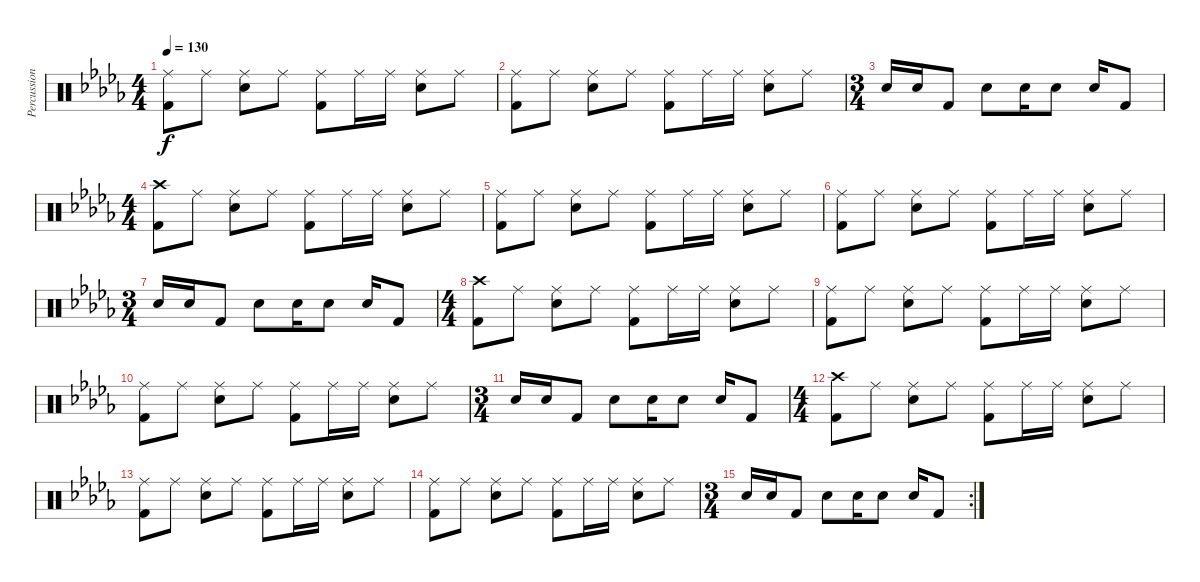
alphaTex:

\track ("Percussions" "Percussion") {instrument percussion}
\staff {score}
\articulation defaults
\ts (4 4)
\tempo 130
\clef neutral
\ks db
("Ride (middle)" "Kick (hit) 2").8{dy f} "Ride (middle)".8 ("Ride (middle)" "Snare (hit) 2").8 "Ride (middle)".8 ("Ride (middle)" "Kick (hit) 2").8 "Ride (middle)".16 "Ride (middle)".16 ("Ride (middle)" "Snare (hit) 2").8 "Ride (middle)".8 |
("Ride (middle)" "Kick (hit) 2").8 "Ride (middle)".8 ("Ride (middle)" "Snare (hit) 2").8 "Ride (middle)".8 ("Ride (middle)" "Kick (hit) 2").8 "Ride (middle)".16 "Ride (middle)".16 ("Ride (middle)" "Snare (hit) 2").8 "Ride (middle)".8 |
\ts (3 4)
"Snare (hit) 2".16 "Snare (hit) 2".16 "Kick (hit) 2".8 "Snare (hit) 2".8 "Snare (hit) 2".16 "Snare (hit) 2".8 "Snare (hit) 2".16 "Kick (hit) 2".8 |
\ts (4 4)
("Crash high (hit)" "Kick (hit) 2").8 "Ride (middle)".8 ("Ride (middle)" "Snare (hit) 2").8 "Ride (middle)".8 ("Ride (middle)" "Kick (hit) 2").8 "Ride (middle)".16 "Ride (middle)".16 ("Ride (middle)" "Snare (hit) 2").8 "Ride (middle)".8 |
("Ride (middle)" "Kick (hit) 2").8 "Ride (middle)".8 ("Ride (middle)" "Snare (hit) 2").8 "Ride (middle)".8 ("Ride (middle)" "Kick (hit) 2").8 "Ride (middle)".16 "Ride (middle)".16 ("Ride (middle)" "Snare (hit) 2").8 "Ride (middle)".8 |
("Ride (middle)" "Kick (hit) 2").8 "Ride (middle)".8 ("Ride (middle)" "Snare (hit) 2").8 "Ride (middle)".8 ("Ride (middle)" "Kick (hit) 2").8 "Ride (middle)".16 "Ride (middle)".16 ("Ride (middle)" "Snare (hit) 2").8 "Ride (middle)".8 |
\ts (3 4)
"Snare (hit) 2".16 "Snare (hit) 2".16 "Kick (hit) 2".8 "Snare (hit) 2".8 "Snare (hit) 2".16 "Snare (hit) 2".8 "Snare (hit) 2".16 "Kick (hit) 2".8 |
\ts (4 4)
("Crash high (hit)" "Kick (hit) 2").8 "Ride (middle)".8 ("Ride (middle)" "Snare (hit) 2").8 "Ride (middle)".8 ("Ride (middle)" "Kick (hit) 2").8 "Ride (middle)".16 "Ride (middle)".16 ("Ride (middle)" "Snare (hit) 2").8 "Ride (middle)".8 |
("Ride (middle)" "Kick (hit) 2").8 "Ride (middle)".8 ("Ride (middle)" "Snare (hit) 2").8 "Ride (middle)".8 ("Ride (middle)" "Kick (hit) 2").8 "Ride (middle)".16 "Ride (middle)".16 ("Ride (middle)" "Snare (hit) 2").8 "Ride (middle)".8 |
("Ride (middle)" "Kick (hit) 2").8 "Ride (middle)".8 ("Ride (middle)" "Snare (hit) 2").8 "Ride (middle)".8 ("Ride (middle)" "Kick (hit) 2").8 "Ride (middle)".16 "Ride (middle)".16 ("Ride (middle)" "Snare (hit) 2").8 "Ride (middle)".8 |
\ts (3 4)
"Snare (hit) 2".16 "Snare (hit) 2".16 "Kick (hit) 2".8 "Snare (hit) 2".8 "Snare (hit) 2".16 "Snare (hit) 2".8 "Snare (hit) 2".16 "Kick (hit) 2".8 |
\ts (4 4)
("Crash high (hit)" "Kick (hit) 2").8 "Ride (middle)".8 ("Ride (middle)" "Snare (hit) 2").8 "Ride (middle)".8 ("Ride (middle)" "Kick (hit) 2").8 "Ride (middle)".16 "Ride (middle)".16 ("Ride (middle)" "Snare (hit) 2").8 "Ride (middle)".8 |
("Ride (middle)" "Kick (hit) 2").8 "Ride (middle)".8 ("Ride (middle)" "Snare (hit) 2").8 "Ride (middle)".8 ("Ride (middle)" "Kick (hit) 2").8 "Ride (middle)".16 "Ride (middle)".16 ("Ride (middle)" "Snare (hit) 2").8 "Ride (middle)".8 |
("Ride (middle)" "Kick (hit) 2").8 "Ride (middle)".8 ("Ride (middle)" "Snare (hit) 2").8 "Ride (middle)".8 ("Ride (middle)" "Kick (hit) 2").8 "Ride (middle)".16 "Ride (middle)".16 ("Ride (middle)" "Snare (hit) 2").8 "Ride (middle)".8 |
\rc 2
\ts (3 4)
"Snare (hit) 2".16 "Snare (hit) 2".16 "Kick (hit) 2".8 "Snare (hit) 2".8 "Snare (hit) 2".16 "Snare (hit) 2".8 "Snare (hit) 2".16 "Kick (hit) 2".8
